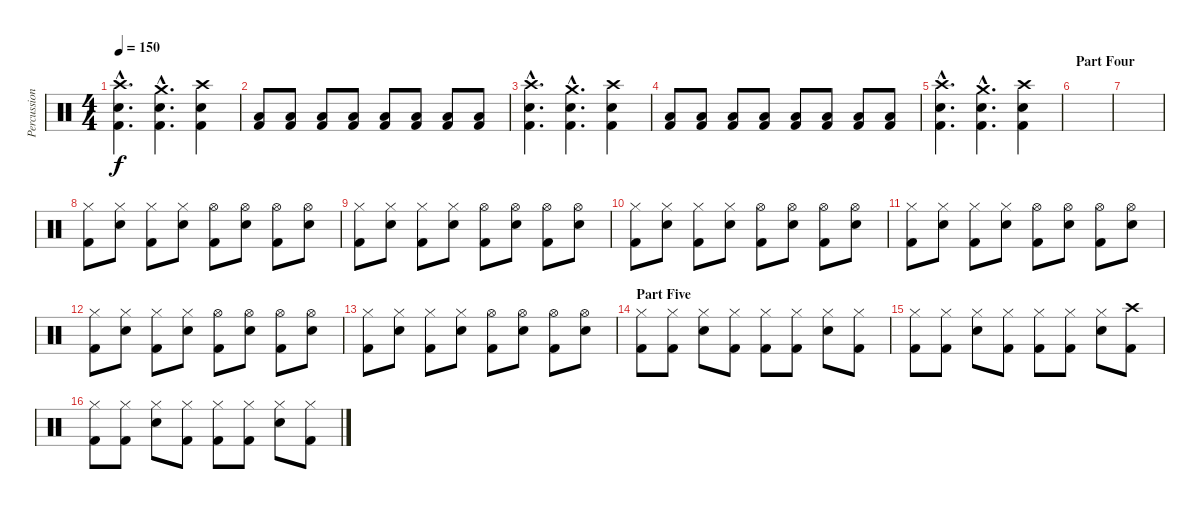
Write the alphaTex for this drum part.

\track ("Percussion" "Percussion") {instrument percussion}
\staff {score}
\articulation defaults
\ts (4 4)
\tempo 150
\clef neutral
\ks c
("Crash high (hit)"{hac} "Electric Snare (hit)"{hac} "Kick (hit) 2"{hac}).4{d dy f} ("Crash medium (hit)"{hac} "Electric Snare (hit)"{hac} "Kick (hit) 2"{hac}).4{d} ("Crash high (hit)" "Electric Snare (hit)" "Kick (hit) 2").4 |
("Low Tom (hit)" "Kick (hit) 2").8 ("Low Tom (hit)" "Kick (hit) 2").8 ("Low Tom (hit)" "Kick (hit) 2").8 ("Low Tom (hit)" "Kick (hit) 2").8 ("Low Tom (hit)" "Kick (hit) 2").8 ("Low Tom (hit)" "Kick (hit) 2").8 ("Low Tom (hit)" "Kick (hit) 2").8 ("Low Tom (hit)" "Kick (hit) 2").8 |
("Crash high (hit)"{hac} "Electric Snare (hit)"{hac} "Kick (hit) 2"{hac}).4{d} ("Crash medium (hit)"{hac} "Electric Snare (hit)"{hac} "Kick (hit) 2"{hac}).4{d} ("Crash high (hit)" "Electric Snare (hit)" "Kick (hit) 2").4 |
("Low Tom (hit)" "Kick (hit) 2").8 ("Low Tom (hit)" "Kick (hit) 2").8 ("Low Tom (hit)" "Kick (hit) 2").8 ("Low Tom (hit)" "Kick (hit) 2").8 ("Low Tom (hit)" "Kick (hit) 2").8 ("Low Tom (hit)" "Kick (hit) 2").8 ("Low Tom (hit)" "Kick (hit) 2").8 ("Low Tom (hit)" "Kick (hit) 2").8 |
("Crash high (hit)"{hac} "Electric Snare (hit)"{hac} "Kick (hit) 2"{hac}).4{d} ("Crash medium (hit)"{hac} "Electric Snare (hit)"{hac} "Kick (hit) 2"{hac}).4{d} ("Crash high (hit)" "Electric Snare (hit)" "Kick (hit) 2").4 |
\section ("" "Part Four")
|
|
("Hi-Hat (closed)" "Kick (hit) 2").8 ("Hi-Hat (closed)" "Electric Snare (hit)").8 ("Hi-Hat (closed)" "Kick (hit) 2").8 ("Hi-Hat (closed)" "Electric Snare (hit)").8 ("Hi-Hat (open)" "Kick (hit) 2").8 ("Hi-Hat (open)" "Electric Snare (hit)").8 ("Hi-Hat (open)" "Kick (hit) 2").8 ("Hi-Hat (open)" "Electric Snare (hit)").8 |
("Hi-Hat (closed)" "Kick (hit) 2").8 ("Hi-Hat (closed)" "Electric Snare (hit)").8 ("Hi-Hat (closed)" "Kick (hit) 2").8 ("Hi-Hat (closed)" "Electric Snare (hit)").8 ("Hi-Hat (open)" "Kick (hit) 2").8 ("Hi-Hat (open)" "Electric Snare (hit)").8 ("Hi-Hat (open)" "Kick (hit) 2").8 ("Hi-Hat (open)" "Electric Snare (hit)").8 |
("Hi-Hat (closed)" "Kick (hit) 2").8 ("Hi-Hat (closed)" "Electric Snare (hit)").8 ("Hi-Hat (closed)" "Kick (hit) 2").8 ("Hi-Hat (closed)" "Electric Snare (hit)").8 ("Hi-Hat (open)" "Kick (hit) 2").8 ("Hi-Hat (open)" "Electric Snare (hit)").8 ("Hi-Hat (open)" "Kick (hit) 2").8 ("Hi-Hat (open)" "Electric Snare (hit)").8 |
("Hi-Hat (closed)" "Kick (hit) 2").8 ("Hi-Hat (closed)" "Electric Snare (hit)").8 ("Hi-Hat (closed)" "Kick (hit) 2").8 ("Hi-Hat (closed)" "Electric Snare (hit)").8 ("Hi-Hat (open)" "Kick (hit) 2").8 ("Hi-Hat (open)" "Electric Snare (hit)").8 ("Hi-Hat (open)" "Kick (hit) 2").8 ("Hi-Hat (open)" "Electric Snare (hit)").8 |
("Hi-Hat (closed)" "Kick (hit) 2").8 ("Hi-Hat (closed)" "Electric Snare (hit)").8 ("Hi-Hat (closed)" "Kick (hit) 2").8 ("Hi-Hat (closed)" "Electric Snare (hit)").8 ("Hi-Hat (open)" "Kick (hit) 2").8 ("Hi-Hat (open)" "Electric Snare (hit)").8 ("Hi-Hat (open)" "Kick (hit) 2").8 ("Hi-Hat (open)" "Electric Snare (hit)").8 |
("Hi-Hat (closed)" "Kick (hit) 2").8 ("Hi-Hat (closed)" "Electric Snare (hit)").8 ("Hi-Hat (closed)" "Kick (hit) 2").8 ("Hi-Hat (closed)" "Electric Snare (hit)").8 ("Hi-Hat (open)" "Kick (hit) 2").8 ("Hi-Hat (open)" "Electric Snare (hit)").8 ("Hi-Hat (open)" "Kick (hit) 2").8 ("Hi-Hat (open)" "Electric Snare (hit)").8 |
\section ("" "Part Five")
("Hi-Hat (closed)" "Kick (hit) 2").8 ("Hi-Hat (closed)" "Kick (hit) 2").8 ("Hi-Hat (closed)" "Electric Snare (hit)").8 ("Hi-Hat (closed)" "Kick (hit) 2").8 ("Hi-Hat (closed)" "Kick (hit) 2").8 ("Hi-Hat (closed)" "Kick (hit) 2").8 ("Hi-Hat (closed)" "Electric Snare (hit)").8 ("Hi-Hat (closed)" "Kick (hit) 2").8 |
("Hi-Hat (closed)" "Kick (hit) 2").8 ("Hi-Hat (closed)" "Kick (hit) 2").8 ("Hi-Hat (closed)" "Electric Snare (hit)").8 ("Hi-Hat (closed)" "Kick (hit) 2").8 ("Hi-Hat (closed)" "Kick (hit) 2").8 ("Hi-Hat (closed)" "Kick (hit) 2").8 ("Hi-Hat (closed)" "Electric Snare (hit)").8 ("Crash high (hit)" "Kick (hit) 2").8 |
("Hi-Hat (closed)" "Kick (hit) 2").8 ("Hi-Hat (closed)" "Kick (hit) 2").8 ("Hi-Hat (closed)" "Electric Snare (hit)").8 ("Hi-Hat (closed)" "Kick (hit) 2").8 ("Hi-Hat (closed)" "Kick (hit) 2").8 ("Hi-Hat (closed)" "Kick (hit) 2").8 ("Hi-Hat (closed)" "Electric Snare (hit)").8 ("Hi-Hat (closed)" "Kick (hit) 2").8
